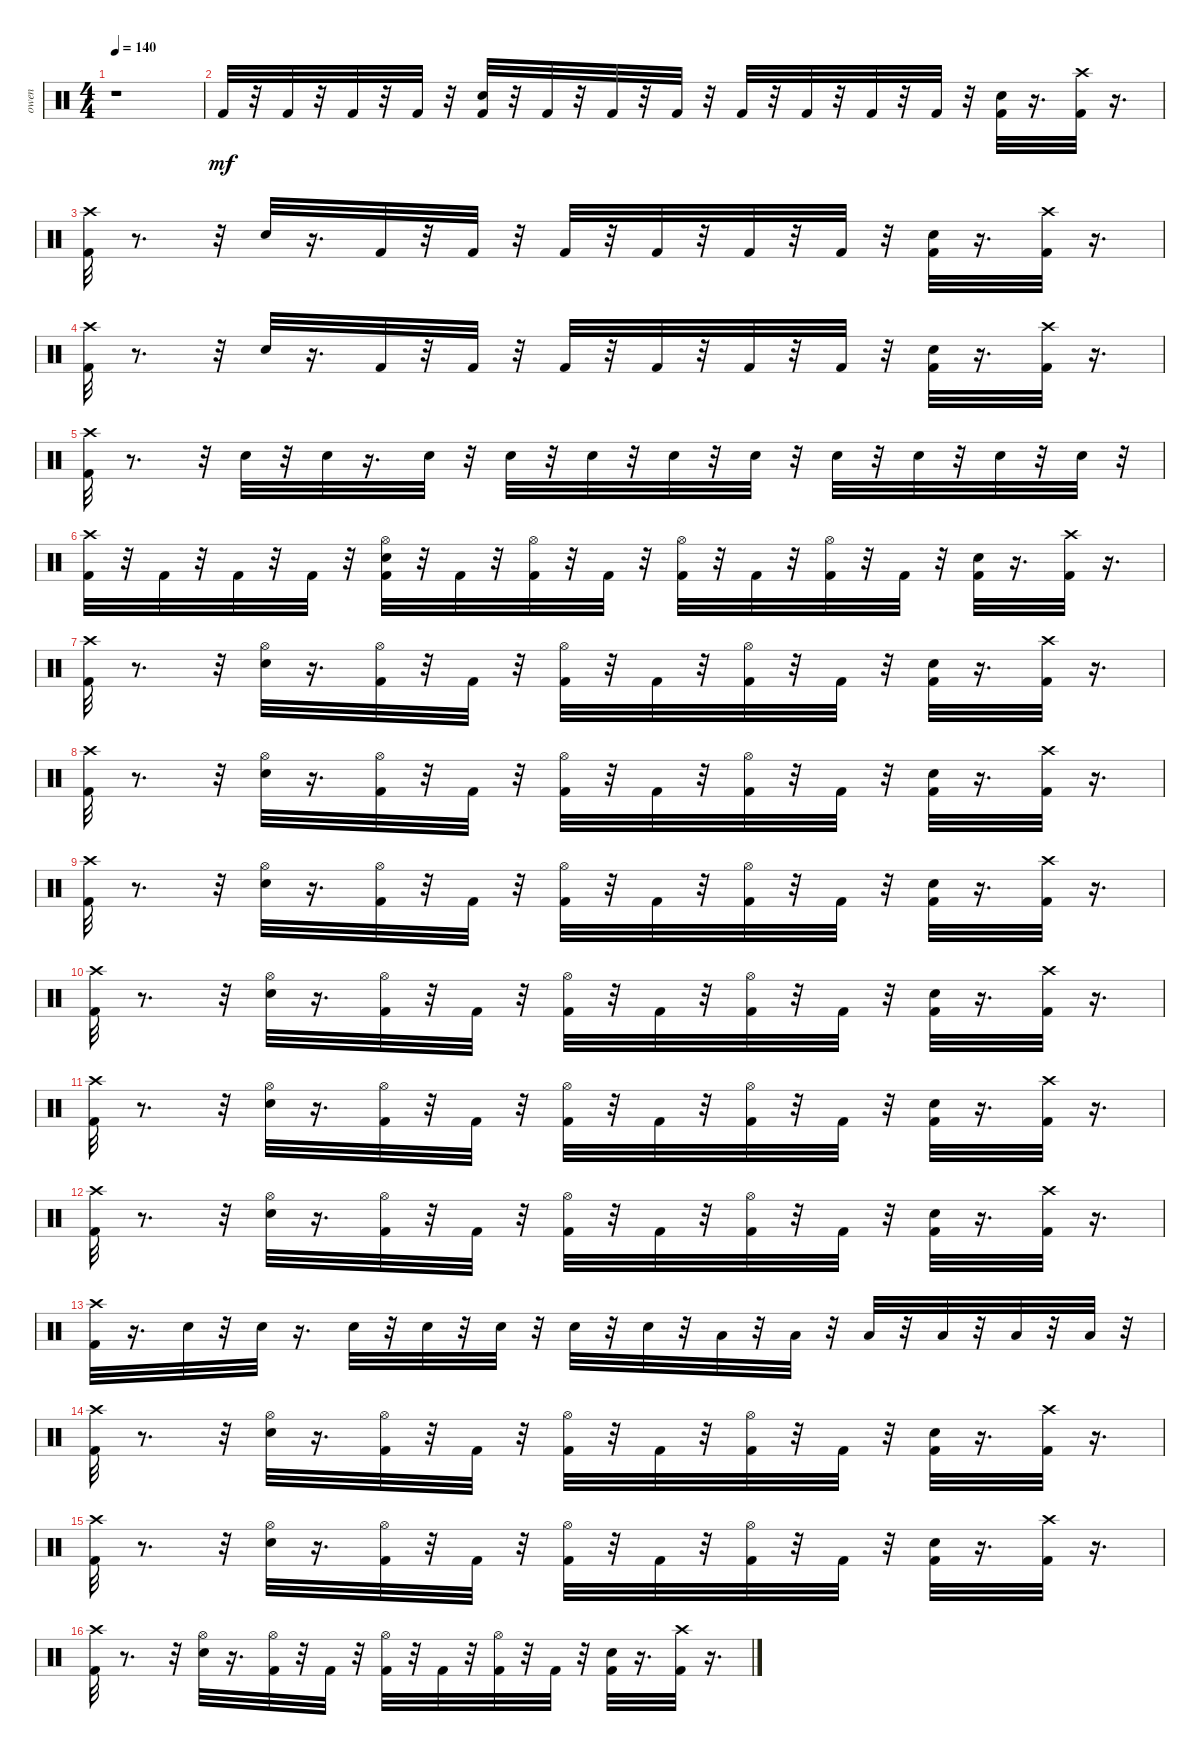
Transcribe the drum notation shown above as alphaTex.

\track ("owen" "owen") {instrument percussion}
\staff {score}
\articulation defaults
\ts (4 4)
\tempo 140
\clef neutral
\ks c
r.1{dy mf} |
"Kick (hit) 2".32 r.32 "Kick (hit) 2".32 r.32 "Kick (hit) 2".32 r.32 "Kick (hit) 2".32 r.32 ("Snare (hit) 2" "Kick (hit) 2").32 r.32 "Kick (hit) 2".32 r.32 "Kick (hit) 2".32 r.32 "Kick (hit) 2".32 r.32 "Kick (hit) 2".32 r.32 "Kick (hit) 2".32 r.32 "Kick (hit) 2".32 r.32 "Kick (hit) 2".32 r.32 ("Kick (hit) 2" "Snare (hit) 2").32 r.16{d} ("Kick (hit) 2" "Crash high (hit)").32 r.16{d} |
("Kick (hit) 2" "Crash high (hit)").32 r.8{d} r.32 "Snare (hit) 2".32 r.16{d} "Kick (hit) 2".32 r.32 "Kick (hit) 2".32 r.32 "Kick (hit) 2".32 r.32 "Kick (hit) 2".32 r.32 "Kick (hit) 2".32 r.32 "Kick (hit) 2".32 r.32 ("Kick (hit) 2" "Snare (hit) 2").32 r.16{d} ("Kick (hit) 2" "Crash high (hit)").32 r.16{d} |
("Kick (hit) 2" "Crash high (hit)").32 r.8{d} r.32 "Snare (hit) 2".32 r.16{d} "Kick (hit) 2".32 r.32 "Kick (hit) 2".32 r.32 "Kick (hit) 2".32 r.32 "Kick (hit) 2".32 r.32 "Kick (hit) 2".32 r.32 "Kick (hit) 2".32 r.32 ("Kick (hit) 2" "Snare (hit) 2").32 r.16{d} ("Kick (hit) 2" "Crash high (hit)").32 r.16{d} |
("Kick (hit) 2" "Crash high (hit)").32 r.8{d} r.32 "Snare (hit) 2".32 r.32 "Snare (hit) 2".32 r.16{d} "Snare (hit) 2".32 r.32 "Snare (hit) 2".32 r.32 "Snare (hit) 2".32 r.32 "Snare (hit) 2".32 r.32 "Snare (hit) 2".32 r.32 "Snare (hit) 2".32 r.32 "Snare (hit) 2".32 r.32 "Snare (hit) 2".32 r.32 "Snare (hit) 2".32 r.32 |
("Kick (hit) 2" "Crash high (hit)").32 r.32 "Kick (hit) 2".32 r.32 "Kick (hit) 2".32 r.32 "Kick (hit) 2".32 r.32 ("Kick (hit) 2" "Snare (hit) 2" "Hi-Hat (open)").32 r.32 "Kick (hit) 2".32 r.32 ("Kick (hit) 2" "Hi-Hat (open)").32 r.32 "Kick (hit) 2".32 r.32 ("Kick (hit) 2" "Hi-Hat (open)").32 r.32 "Kick (hit) 2".32 r.32 ("Kick (hit) 2" "Hi-Hat (open)").32 r.32 "Kick (hit) 2".32 r.32 ("Kick (hit) 2" "Snare (hit) 2").32 r.16{d} ("Kick (hit) 2" "Crash high (hit)").32 r.16{d} |
("Kick (hit) 2" "Crash high (hit)").32 r.8{d} r.32 ("Snare (hit) 2" "Hi-Hat (open)").32 r.16{d} ("Kick (hit) 2" "Hi-Hat (open)").32 r.32 "Kick (hit) 2".32 r.32 ("Kick (hit) 2" "Hi-Hat (open)").32 r.32 "Kick (hit) 2".32 r.32 ("Kick (hit) 2" "Hi-Hat (open)").32 r.32 "Kick (hit) 2".32 r.32 ("Kick (hit) 2" "Snare (hit) 2").32 r.16{d} ("Kick (hit) 2" "Crash high (hit)").32 r.16{d} |
("Kick (hit) 2" "Crash high (hit)").32 r.8{d} r.32 ("Snare (hit) 2" "Hi-Hat (open)").32 r.16{d} ("Hi-Hat (open)" "Kick (hit) 2").32 r.32 "Kick (hit) 2".32 r.32 ("Kick (hit) 2" "Hi-Hat (open)").32 r.32 "Kick (hit) 2".32 r.32 ("Kick (hit) 2" "Hi-Hat (open)").32 r.32 "Kick (hit) 2".32 r.32 ("Kick (hit) 2" "Snare (hit) 2").32 r.16{d} ("Kick (hit) 2" "Crash high (hit)").32 r.16{d} |
("Kick (hit) 2" "Crash high (hit)").32 r.8{d} r.32 ("Snare (hit) 2" "Hi-Hat (open)").32 r.16{d} ("Kick (hit) 2" "Hi-Hat (open)").32 r.32 "Kick (hit) 2".32 r.32 ("Kick (hit) 2" "Hi-Hat (open)").32 r.32 "Kick (hit) 2".32 r.32 ("Kick (hit) 2" "Hi-Hat (open)").32 r.32 "Kick (hit) 2".32 r.32 ("Kick (hit) 2" "Snare (hit) 2").32 r.16{d} ("Kick (hit) 2" "Crash high (hit)").32 r.16{d} |
("Kick (hit) 2" "Crash high (hit)").32 r.8{d} r.32 ("Snare (hit) 2" "Hi-Hat (open)").32 r.16{d} ("Kick (hit) 2" "Hi-Hat (open)").32 r.32 "Kick (hit) 2".32 r.32 ("Kick (hit) 2" "Hi-Hat (open)").32 r.32 "Kick (hit) 2".32 r.32 ("Kick (hit) 2" "Hi-Hat (open)").32 r.32 "Kick (hit) 2".32 r.32 ("Kick (hit) 2" "Snare (hit) 2").32 r.16{d} ("Kick (hit) 2" "Crash high (hit)").32 r.16{d} |
("Kick (hit) 2" "Crash high (hit)").32 r.8{d} r.32 ("Snare (hit) 2" "Hi-Hat (open)").32 r.16{d} ("Hi-Hat (open)" "Kick (hit) 2").32 r.32 "Kick (hit) 2".32 r.32 ("Kick (hit) 2" "Hi-Hat (open)").32 r.32 "Kick (hit) 2".32 r.32 ("Kick (hit) 2" "Hi-Hat (open)").32 r.32 "Kick (hit) 2".32 r.32 ("Kick (hit) 2" "Snare (hit) 2").32 r.16{d} ("Kick (hit) 2" "Crash high (hit)").32 r.16{d} |
("Kick (hit) 2" "Crash high (hit)").32 r.8{d} r.32 ("Snare (hit) 2" "Hi-Hat (open)").32 r.16{d} ("Kick (hit) 2" "Hi-Hat (open)").32 r.32 "Kick (hit) 2".32 r.32 ("Kick (hit) 2" "Hi-Hat (open)").32 r.32 "Kick (hit) 2".32 r.32 ("Kick (hit) 2" "Hi-Hat (open)").32 r.32 "Kick (hit) 2".32 r.32 ("Kick (hit) 2" "Snare (hit) 2").32 r.16{d} ("Kick (hit) 2" "Crash high (hit)").32 r.16{d} |
("Kick (hit) 2" "Crash high (hit)").32 r.16{d} "Snare (hit) 2".32 r.32 "Snare (hit) 2".32 r.16{d} "Snare (hit) 2".32 r.32 "Snare (hit) 2".32 r.32 "Snare (hit) 2".32 r.32 "Snare (hit) 2".32 r.32 "Snare (hit) 2".32 r.32 "Low Tom (hit)".32 r.32 "Low Tom (hit)".32 r.32 "Low Tom (hit)".32 r.32 "Low Tom (hit)".32 r.32 "Low Tom (hit)".32 r.32 "Low Tom (hit)".32 r.32 |
("Kick (hit) 2" "Crash high (hit)").32 r.8{d} r.32 ("Snare (hit) 2" "Hi-Hat (open)").32 r.16{d} ("Kick (hit) 2" "Hi-Hat (open)").32 r.32 "Kick (hit) 2".32 r.32 ("Kick (hit) 2" "Hi-Hat (open)").32 r.32 "Kick (hit) 2".32 r.32 ("Kick (hit) 2" "Hi-Hat (open)").32 r.32 "Kick (hit) 2".32 r.32 ("Kick (hit) 2" "Snare (hit) 2").32 r.16{d} ("Kick (hit) 2" "Crash high (hit)").32 r.16{d} |
("Kick (hit) 2" "Crash high (hit)").32 r.8{d} r.32 ("Snare (hit) 2" "Hi-Hat (open)").32 r.16{d} ("Kick (hit) 2" "Hi-Hat (open)").32 r.32 "Kick (hit) 2".32 r.32 ("Kick (hit) 2" "Hi-Hat (open)").32 r.32 "Kick (hit) 2".32 r.32 ("Kick (hit) 2" "Hi-Hat (open)").32 r.32 "Kick (hit) 2".32 r.32 ("Kick (hit) 2" "Snare (hit) 2").32 r.16{d} ("Kick (hit) 2" "Crash high (hit)").32 r.16{d} |
("Kick (hit) 2" "Crash high (hit)").32 r.8{d} r.32 ("Snare (hit) 2" "Hi-Hat (open)").32 r.16{d} ("Kick (hit) 2" "Hi-Hat (open)").32 r.32 "Kick (hit) 2".32 r.32 ("Kick (hit) 2" "Hi-Hat (open)").32 r.32 "Kick (hit) 2".32 r.32 ("Kick (hit) 2" "Hi-Hat (open)").32 r.32 "Kick (hit) 2".32 r.32 ("Kick (hit) 2" "Snare (hit) 2").32 r.16{d} ("Kick (hit) 2" "Crash high (hit)").32 r.16{d}
